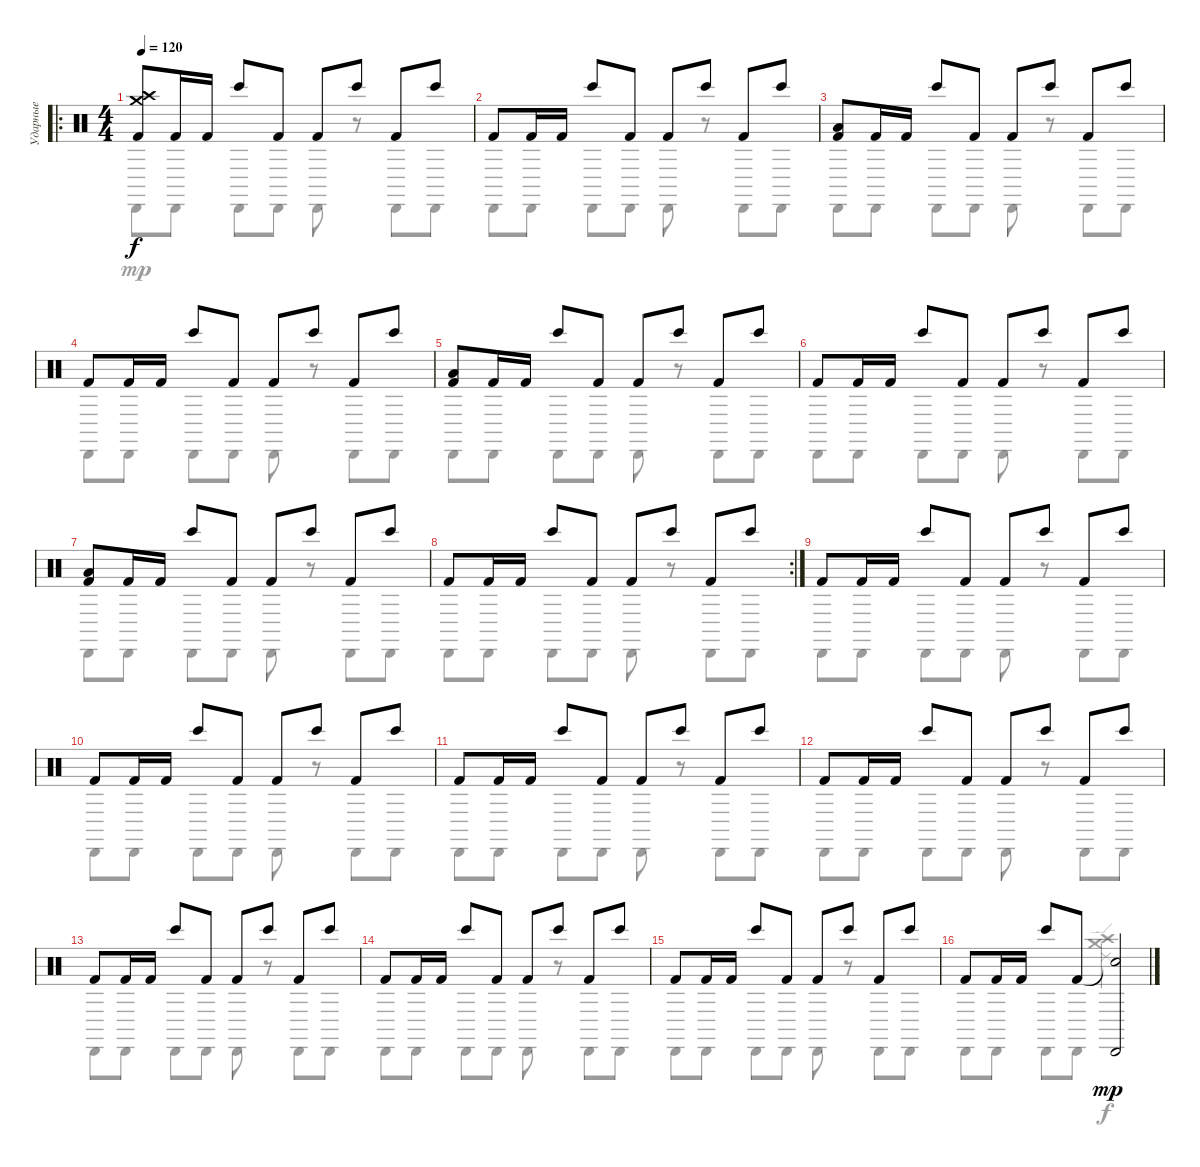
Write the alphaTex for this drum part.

\track ("Ударные" "Ударные") {instrument percussion}
\staff {score}
\articulation defaults
\voice
\ro
\ts (4 4)
\tempo 120
\clef neutral
\ks c
("Kick (hit) 2" "Crash medium (hit)" "Crash high (hit)").8{dy f} "Kick (hit) 2".16 "Kick (hit) 2".16 "Bongo High (hit)".8 "Kick (hit) 2".8 "Kick (hit) 2".8 "Bongo High (hit)".8 "Kick (hit) 2".8 "Bongo High (hit)".8 |
"Kick (hit) 2".8 "Kick (hit) 2".16 "Kick (hit) 2".16 "Bongo High (hit)".8 "Kick (hit) 2".8 "Kick (hit) 2".8 "Bongo High (hit)".8 "Kick (hit) 2".8 "Bongo High (hit)".8 |
("Kick (hit) 2" "Low Tom (hit)").8 "Kick (hit) 2".16 "Kick (hit) 2".16 "Bongo High (hit)".8 "Kick (hit) 2".8 "Kick (hit) 2".8 "Bongo High (hit)".8 "Kick (hit) 2".8 "Bongo High (hit)".8 |
"Kick (hit) 2".8 "Kick (hit) 2".16 "Kick (hit) 2".16 "Bongo High (hit)".8 "Kick (hit) 2".8 "Kick (hit) 2".8 "Bongo High (hit)".8 "Kick (hit) 2".8 "Bongo High (hit)".8 |
("Kick (hit) 2" "Low Tom (hit)").8 "Kick (hit) 2".16 "Kick (hit) 2".16 "Bongo High (hit)".8 "Kick (hit) 2".8 "Kick (hit) 2".8 "Bongo High (hit)".8 "Kick (hit) 2".8 "Bongo High (hit)".8 |
"Kick (hit) 2".8 "Kick (hit) 2".16 "Kick (hit) 2".16 "Bongo High (hit)".8 "Kick (hit) 2".8 "Kick (hit) 2".8 "Bongo High (hit)".8 "Kick (hit) 2".8 "Bongo High (hit)".8 |
("Kick (hit) 2" "Low Tom (hit)").8 "Kick (hit) 2".16 "Kick (hit) 2".16 "Bongo High (hit)".8 "Kick (hit) 2".8 "Kick (hit) 2".8 "Bongo High (hit)".8 "Kick (hit) 2".8 "Bongo High (hit)".8 |
\rc 2 "Kick (hit) 2".8 "Kick (hit) 2".16 "Kick (hit) 2".16 "Bongo High (hit)".8 "Kick (hit) 2".8 "Kick (hit) 2".8 "Bongo High (hit)".8 "Kick (hit) 2".8 "Bongo High (hit)".8
|
"Kick (hit) 2".8 "Kick (hit) 2".16 "Kick (hit) 2".16 "Bongo High (hit)".8 "Kick (hit) 2".8 "Kick (hit) 2".8 "Bongo High (hit)".8 "Kick (hit) 2".8 "Bongo High (hit)".8 |
"Kick (hit) 2".8 "Kick (hit) 2".16 "Kick (hit) 2".16 "Bongo High (hit)".8 "Kick (hit) 2".8 "Kick (hit) 2".8 "Bongo High (hit)".8 "Kick (hit) 2".8 "Bongo High (hit)".8 |
"Kick (hit) 2".8 "Kick (hit) 2".16 "Kick (hit) 2".16 "Bongo High (hit)".8 "Kick (hit) 2".8 "Kick (hit) 2".8 "Bongo High (hit)".8 "Kick (hit) 2".8 "Bongo High (hit)".8 |
"Kick (hit) 2".8 "Kick (hit) 2".16 "Kick (hit) 2".16 "Bongo High (hit)".8 "Kick (hit) 2".8 "Kick (hit) 2".8 "Bongo High (hit)".8 "Kick (hit) 2".8 "Bongo High (hit)".8 |
"Kick (hit) 2".8 "Kick (hit) 2".16 "Kick (hit) 2".16 "Bongo High (hit)".8 "Kick (hit) 2".8 "Kick (hit) 2".8 "Bongo High (hit)".8 "Kick (hit) 2".8 "Bongo High (hit)".8 |
"Kick (hit) 2".8 "Kick (hit) 2".16 "Kick (hit) 2".16 "Bongo High (hit)".8 "Kick (hit) 2".8 "Kick (hit) 2".8 "Bongo High (hit)".8 "Kick (hit) 2".8 "Bongo High (hit)".8 |
"Kick (hit) 2".8 "Kick (hit) 2".16 "Kick (hit) 2".16 "Bongo High (hit)".8 "Kick (hit) 2".8 "Kick (hit) 2".8 "Bongo High (hit)".8 "Kick (hit) 2".8 "Bongo High (hit)".8 |
"Kick (hit) 2".8 "Kick (hit) 2".16 "Kick (hit) 2".16 "Bongo High (hit)".8 "Kick (hit) 2".8 ("Snare (hit)"{t} "Cabasa (hit)").2{dy mp}
\voice
\clef neutral
\ottava regular
\simile none
\ks c "Cabasa (hit)".8{dy mp} "Cabasa (hit)".8 "Cabasa (hit)".8 "Cabasa (hit)".8 "Cabasa (hit)".8
r.8 "Cabasa (hit)".8 "Cabasa (hit)".8 |
"Cabasa (hit)".8 "Cabasa (hit)".8 "Cabasa (hit)".8 "Cabasa (hit)".8 "Cabasa (hit)".8 r.8 "Cabasa (hit)".8 "Cabasa (hit)".8 |
"Cabasa (hit)".8 "Cabasa (hit)".8 "Cabasa (hit)".8 "Cabasa (hit)".8 "Cabasa (hit)".8 r.8 "Cabasa (hit)".8 "Cabasa (hit)".8 |
"Cabasa (hit)".8 "Cabasa (hit)".8 "Cabasa (hit)".8 "Cabasa (hit)".8 "Cabasa (hit)".8 r.8 "Cabasa (hit)".8 "Cabasa (hit)".8 |
"Cabasa (hit)".8 "Cabasa (hit)".8 "Cabasa (hit)".8 "Cabasa (hit)".8 "Cabasa (hit)".8 r.8 "Cabasa (hit)".8 "Cabasa (hit)".8 |
"Cabasa (hit)".8 "Cabasa (hit)".8 "Cabasa (hit)".8 "Cabasa (hit)".8 "Cabasa (hit)".8 r.8 "Cabasa (hit)".8 "Cabasa (hit)".8 |
"Cabasa (hit)".8 "Cabasa (hit)".8 "Cabasa (hit)".8 "Cabasa (hit)".8 "Cabasa (hit)".8 r.8 "Cabasa (hit)".8 "Cabasa (hit)".8 |
"Cabasa (hit)".8 "Cabasa (hit)".8 "Cabasa (hit)".8 "Cabasa (hit)".8 "Cabasa (hit)".8 r.8 "Cabasa (hit)".8 "Cabasa (hit)".8 |
"Cabasa (hit)".8 "Cabasa (hit)".8 "Cabasa (hit)".8 "Cabasa (hit)".8 "Cabasa (hit)".8 r.8 "Cabasa (hit)".8 "Cabasa (hit)".8 |
"Cabasa (hit)".8 "Cabasa (hit)".8 "Cabasa (hit)".8 "Cabasa (hit)".8 "Cabasa (hit)".8 r.8 "Cabasa (hit)".8 "Cabasa (hit)".8 |
"Cabasa (hit)".8 "Cabasa (hit)".8 "Cabasa (hit)".8 "Cabasa (hit)".8 "Cabasa (hit)".8 r.8 "Cabasa (hit)".8 "Cabasa (hit)".8 |
"Cabasa (hit)".8 "Cabasa (hit)".8 "Cabasa (hit)".8 "Cabasa (hit)".8 "Cabasa (hit)".8 r.8 "Cabasa (hit)".8 "Cabasa (hit)".8 |
"Cabasa (hit)".8 "Cabasa (hit)".8 "Cabasa (hit)".8 "Cabasa (hit)".8 "Cabasa (hit)".8 r.8 "Cabasa (hit)".8 "Cabasa (hit)".8 |
"Cabasa (hit)".8 "Cabasa (hit)".8 "Cabasa (hit)".8 "Cabasa (hit)".8 "Cabasa (hit)".8 r.8 "Cabasa (hit)".8 "Cabasa (hit)".8 |
"Cabasa (hit)".8 "Cabasa (hit)".8 "Cabasa (hit)".8 "Cabasa (hit)".8 "Cabasa (hit)".8 r.8 "Cabasa (hit)".8 "Cabasa (hit)".8 |
"Cabasa (hit)".8 "Cabasa (hit)".8 "Cabasa (hit)".8 "Cabasa (hit)".8 ("Crash medium (hit)" "Ride (edge) 2" "Crash high (hit)").2{dy f}
